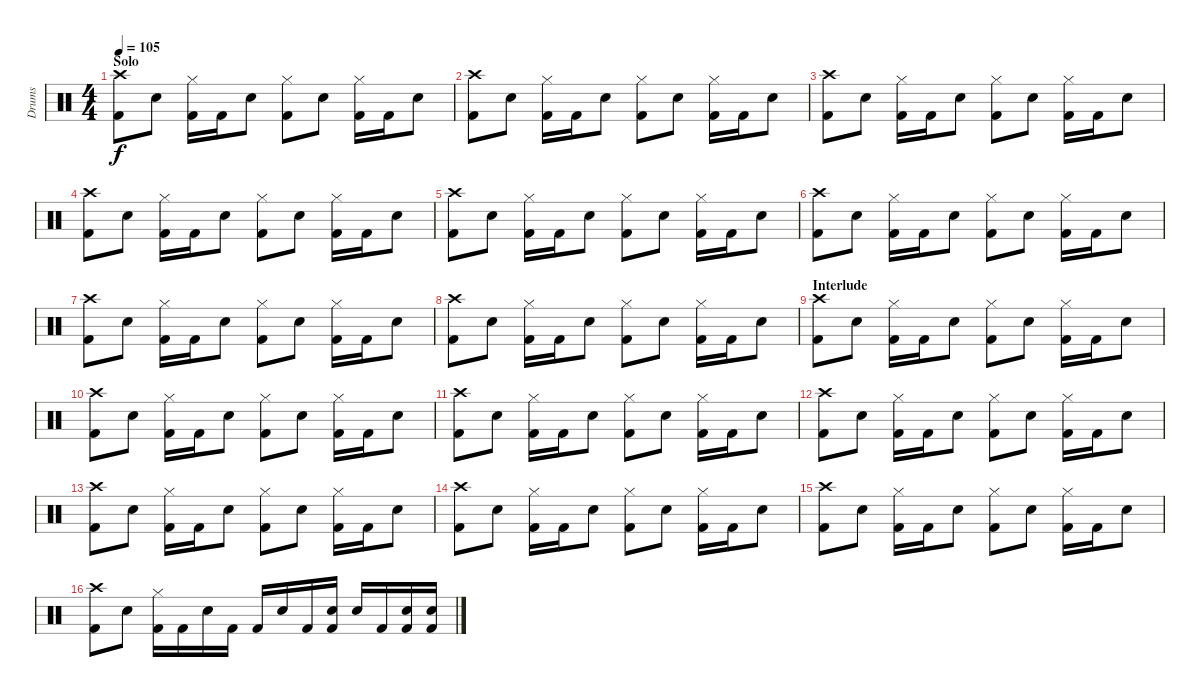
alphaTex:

\track ("Drums" "Drums") {instrument percussion}
\staff {score}
\articulation defaults
\ts (4 4)
\section ("" "Solo")
\tempo 105
\clef neutral
\ks c
("Crash high (hit)" "Kick (hit) 2").8{dy f} "Snare (hit) 2".8 ("Hi-Hat (closed)" "Kick (hit) 2").16 "Kick (hit) 2".16 "Snare (hit) 2".8 ("Hi-Hat (closed)" "Kick (hit) 2").8 "Snare (hit) 2".8 ("Hi-Hat (closed)" "Kick (hit) 2").16 "Kick (hit) 2".16 "Snare (hit) 2".8 |
("Crash high (hit)" "Kick (hit) 2").8 "Snare (hit) 2".8 ("Hi-Hat (closed)" "Kick (hit) 2").16 "Kick (hit) 2".16 "Snare (hit) 2".8 ("Hi-Hat (closed)" "Kick (hit) 2").8 "Snare (hit) 2".8 ("Hi-Hat (closed)" "Kick (hit) 2").16 "Kick (hit) 2".16 "Snare (hit) 2".8 |
("Crash high (hit)" "Kick (hit) 2").8 "Snare (hit) 2".8 ("Hi-Hat (closed)" "Kick (hit) 2").16 "Kick (hit) 2".16 "Snare (hit) 2".8 ("Hi-Hat (closed)" "Kick (hit) 2").8 "Snare (hit) 2".8 ("Hi-Hat (closed)" "Kick (hit) 2").16 "Kick (hit) 2".16 "Snare (hit) 2".8 |
("Crash high (hit)" "Kick (hit) 2").8 "Snare (hit) 2".8 ("Hi-Hat (closed)" "Kick (hit) 2").16 "Kick (hit) 2".16 "Snare (hit) 2".8 ("Hi-Hat (closed)" "Kick (hit) 2").8 "Snare (hit) 2".8 ("Hi-Hat (closed)" "Kick (hit) 2").16 "Kick (hit) 2".16 "Snare (hit) 2".8 |
("Crash high (hit)" "Kick (hit) 2").8 "Snare (hit) 2".8 ("Hi-Hat (closed)" "Kick (hit) 2").16 "Kick (hit) 2".16 "Snare (hit) 2".8 ("Hi-Hat (closed)" "Kick (hit) 2").8 "Snare (hit) 2".8 ("Hi-Hat (closed)" "Kick (hit) 2").16 "Kick (hit) 2".16 "Snare (hit) 2".8 |
("Crash high (hit)" "Kick (hit) 2").8 "Snare (hit) 2".8 ("Hi-Hat (closed)" "Kick (hit) 2").16 "Kick (hit) 2".16 "Snare (hit) 2".8 ("Hi-Hat (closed)" "Kick (hit) 2").8 "Snare (hit) 2".8 ("Hi-Hat (closed)" "Kick (hit) 2").16 "Kick (hit) 2".16 "Snare (hit) 2".8 |
("Crash high (hit)" "Kick (hit) 2").8 "Snare (hit) 2".8 ("Hi-Hat (closed)" "Kick (hit) 2").16 "Kick (hit) 2".16 "Snare (hit) 2".8 ("Hi-Hat (closed)" "Kick (hit) 2").8 "Snare (hit) 2".8 ("Hi-Hat (closed)" "Kick (hit) 2").16 "Kick (hit) 2".16 "Snare (hit) 2".8 |
("Crash high (hit)" "Kick (hit) 2").8 "Snare (hit) 2".8 ("Hi-Hat (closed)" "Kick (hit) 2").16 "Kick (hit) 2".16 "Snare (hit) 2".8 ("Hi-Hat (closed)" "Kick (hit) 2").8 "Snare (hit) 2".8 ("Hi-Hat (closed)" "Kick (hit) 2").16 "Kick (hit) 2".16 "Snare (hit) 2".8 |
\section ("" "Interlude")
("Crash high (hit)" "Kick (hit) 2").8 "Snare (hit) 2".8 ("Hi-Hat (closed)" "Kick (hit) 2").16 "Kick (hit) 2".16 "Snare (hit) 2".8 ("Hi-Hat (closed)" "Kick (hit) 2").8 "Snare (hit) 2".8 ("Hi-Hat (closed)" "Kick (hit) 2").16 "Kick (hit) 2".16 "Snare (hit) 2".8 |
("Crash high (hit)" "Kick (hit) 2").8 "Snare (hit) 2".8 ("Hi-Hat (closed)" "Kick (hit) 2").16 "Kick (hit) 2".16 "Snare (hit) 2".8 ("Hi-Hat (closed)" "Kick (hit) 2").8 "Snare (hit) 2".8 ("Hi-Hat (closed)" "Kick (hit) 2").16 "Kick (hit) 2".16 "Snare (hit) 2".8 |
("Crash high (hit)" "Kick (hit) 2").8 "Snare (hit) 2".8 ("Hi-Hat (closed)" "Kick (hit) 2").16 "Kick (hit) 2".16 "Snare (hit) 2".8 ("Hi-Hat (closed)" "Kick (hit) 2").8 "Snare (hit) 2".8 ("Hi-Hat (closed)" "Kick (hit) 2").16 "Kick (hit) 2".16 "Snare (hit) 2".8 |
("Crash high (hit)" "Kick (hit) 2").8 "Snare (hit) 2".8 ("Hi-Hat (closed)" "Kick (hit) 2").16 "Kick (hit) 2".16 "Snare (hit) 2".8 ("Hi-Hat (closed)" "Kick (hit) 2").8 "Snare (hit) 2".8 ("Hi-Hat (closed)" "Kick (hit) 2").16 "Kick (hit) 2".16 "Snare (hit) 2".8 |
("Crash high (hit)" "Kick (hit) 2").8 "Snare (hit) 2".8 ("Hi-Hat (closed)" "Kick (hit) 2").16 "Kick (hit) 2".16 "Snare (hit) 2".8 ("Hi-Hat (closed)" "Kick (hit) 2").8 "Snare (hit) 2".8 ("Hi-Hat (closed)" "Kick (hit) 2").16 "Kick (hit) 2".16 "Snare (hit) 2".8 |
("Crash high (hit)" "Kick (hit) 2").8 "Snare (hit) 2".8 ("Hi-Hat (closed)" "Kick (hit) 2").16 "Kick (hit) 2".16 "Snare (hit) 2".8 ("Hi-Hat (closed)" "Kick (hit) 2").8 "Snare (hit) 2".8 ("Hi-Hat (closed)" "Kick (hit) 2").16 "Kick (hit) 2".16 "Snare (hit) 2".8 |
("Crash high (hit)" "Kick (hit) 2").8 "Snare (hit) 2".8 ("Hi-Hat (closed)" "Kick (hit) 2").16 "Kick (hit) 2".16 "Snare (hit) 2".8 ("Hi-Hat (closed)" "Kick (hit) 2").8 "Snare (hit) 2".8 ("Hi-Hat (closed)" "Kick (hit) 2").16 "Kick (hit) 2".16 "Snare (hit) 2".8 |
("Crash high (hit)" "Kick (hit) 2").8 "Snare (hit) 2".8 ("Hi-Hat (closed)" "Kick (hit) 2").16 "Kick (hit) 2".16 "Snare (hit) 2".16 "Kick (hit) 2".16 "Kick (hit) 2".16 "Snare (hit) 2".16 "Kick (hit) 2".16 ("Snare (hit) 2" "Kick (hit) 2").16 "Snare (hit) 2".16 "Kick (hit) 2".16 ("Snare (hit) 2" "Kick (hit) 2").16 ("Snare (hit) 2" "Kick (hit) 2").16
